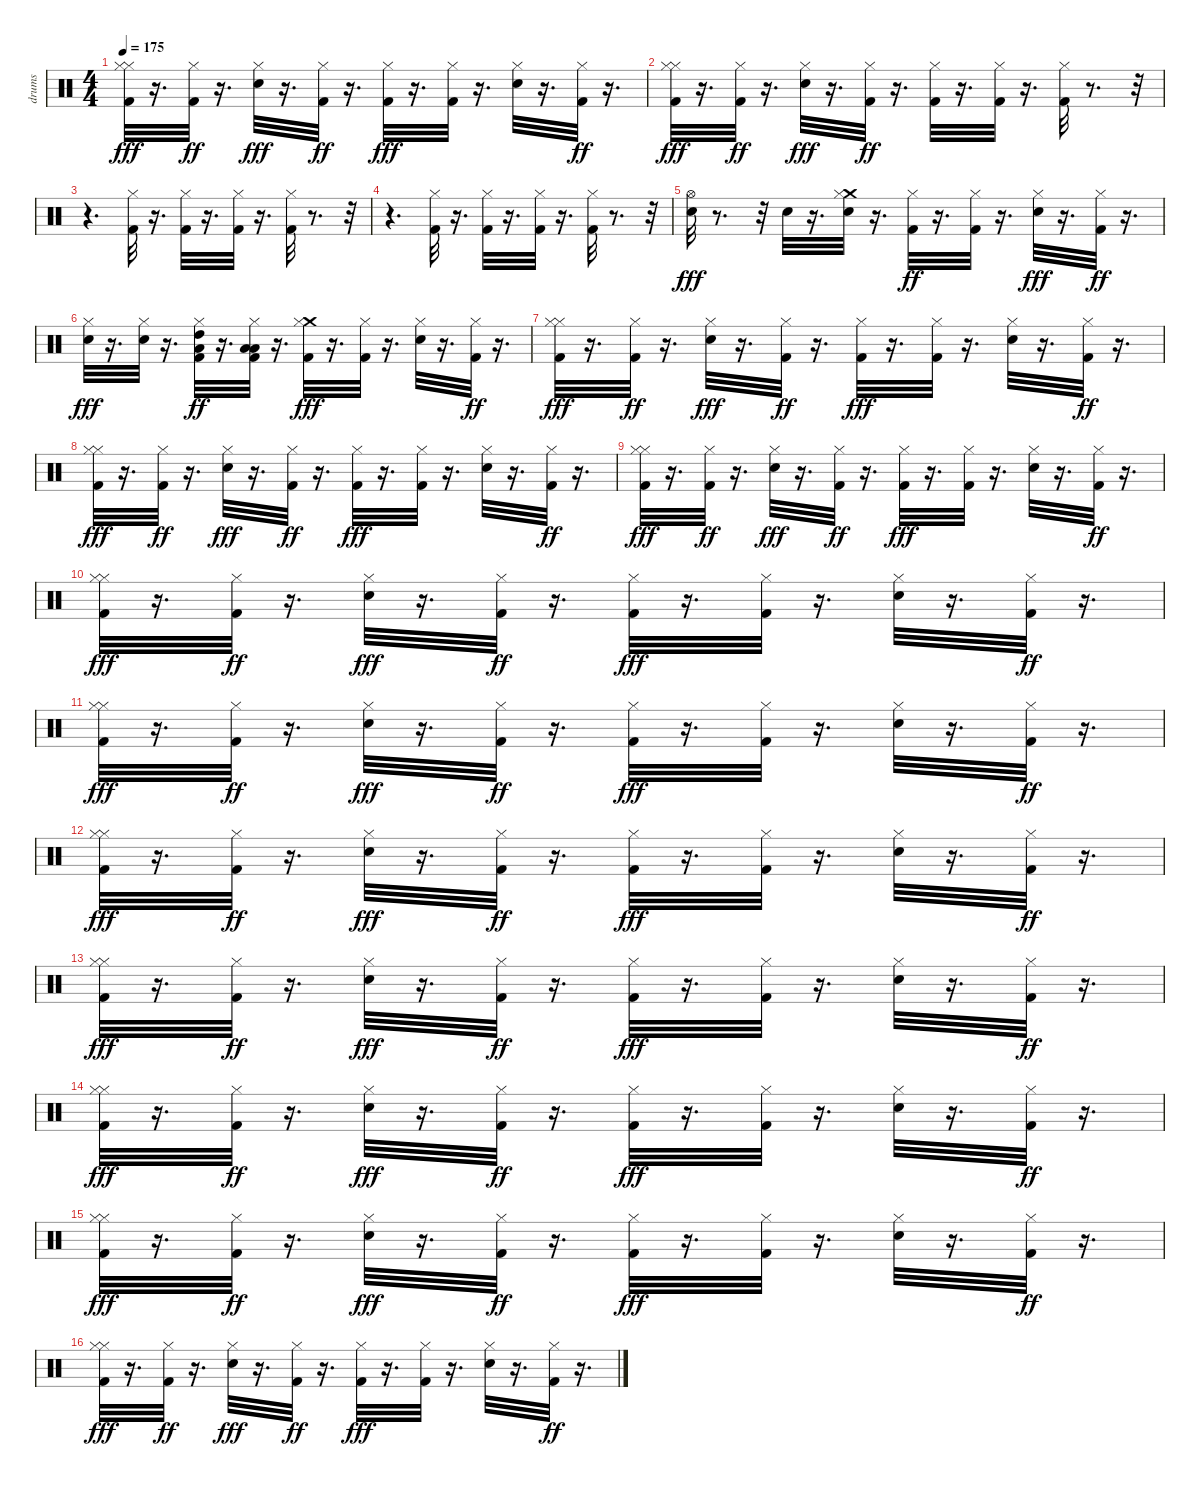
\track ("drums" "drums") {instrument percussion}
\staff {score}
\articulation defaults
\ts (4 4)
\tempo 175
\clef neutral
\ks c
("Hi-Hat (closed)" "Hi-Hat (closed)" "Kick (hit) 2").32{dy fff} r.16{d} ("Hi-Hat (closed)" "Kick (hit) 2").32{dy ff} r.16{d} ("Hi-Hat (closed)" "Electric Snare (hit)").32{dy fff} r.16{d} ("Hi-Hat (closed)" "Kick (hit) 2").32{dy ff} r.16{d} ("Hi-Hat (closed)" "Kick (hit) 2").32{dy fff} r.16{d} ("Hi-Hat (closed)" "Kick (hit) 2").32 r.16{d} ("Hi-Hat (closed)" "Electric Snare (hit)").32 r.16{d} ("Hi-Hat (closed)" "Kick (hit) 2").32{dy ff} r.16{d} |
("Hi-Hat (closed)" "Hi-Hat (closed)" "Kick (hit) 2").32{dy fff} r.16{d} ("Hi-Hat (closed)" "Kick (hit) 2").32{dy ff} r.16{d} ("Hi-Hat (closed)" "Electric Snare (hit)").32{dy fff} r.16{d} ("Hi-Hat (closed)" "Kick (hit) 2").32{dy ff} r.16{d} ("Hi-Hat (closed)" "Kick (hit) 2").32 r.16{d} ("Hi-Hat (closed)" "Kick (hit) 2").32 r.16{d} ("Hi-Hat (closed)" "Kick (hit) 2").32 r.8{d} r.32 |
r.4{d} ("Hi-Hat (closed)" "Kick (hit) 2").32 r.16{d} ("Hi-Hat (closed)" "Kick (hit) 2").32 r.16{d} ("Hi-Hat (closed)" "Kick (hit) 2").32 r.16{d} ("Hi-Hat (closed)" "Kick (hit) 2").32 r.8{d} r.32 |
r.4{d} ("Hi-Hat (closed)" "Kick (hit) 2").32 r.16{d} ("Hi-Hat (closed)" "Kick (hit) 2").32 r.16{d} ("Hi-Hat (closed)" "Kick (hit) 2").32 r.16{d} ("Hi-Hat (closed)" "Kick (hit) 2").32 r.8{d} r.32 |
("Hi-Hat (open)" "Electric Snare (hit)").32{dy fff} r.8{d} r.32 "Electric Snare (hit)".32 r.16{d} ("Crash medium (hit)" "Hi-Hat (closed)" "Electric Snare (hit)").32 r.16{d} ("Hi-Hat (closed)" "Kick (hit) 2").32{dy ff} r.16{d} ("Hi-Hat (closed)" "Kick (hit) 2").32 r.16{d} ("Hi-Hat (closed)" "Electric Snare (hit)").32{dy fff} r.16{d} ("Hi-Hat (closed)" "Kick (hit) 2").32{dy ff} r.16{d} |
("Hi-Hat (closed)" "Electric Snare (hit)").32{dy fff} r.16{d} ("Hi-Hat (closed)" "Electric Snare (hit)").32 r.16{d} ("Hi-Hat (closed)" "Low Tom (hit)" "High Tom (hit)" "Kick (hit) 2").32{dy ff} r.16{d} ("Hi-Hat (closed)" "Low Floor Tom (hit)" "Low Tom (hit)" "Kick (hit) 2").32 r.16{d} ("Crash medium (hit)" "Hi-Hat (closed)" "Kick (hit) 2").32{dy fff} r.16{d} ("Hi-Hat (closed)" "Kick (hit) 2").32 r.16{d} ("Hi-Hat (closed)" "Electric Snare (hit)").32 r.16{d} ("Hi-Hat (closed)" "Kick (hit) 2").32{dy ff} r.16{d} |
("Hi-Hat (closed)" "Hi-Hat (closed)" "Kick (hit) 2").32{dy fff} r.16{d} ("Hi-Hat (closed)" "Kick (hit) 2").32{dy ff} r.16{d} ("Hi-Hat (closed)" "Electric Snare (hit)").32{dy fff} r.16{d} ("Hi-Hat (closed)" "Kick (hit) 2").32{dy ff} r.16{d} ("Hi-Hat (closed)" "Kick (hit) 2").32{dy fff} r.16{d} ("Hi-Hat (closed)" "Kick (hit) 2").32 r.16{d} ("Hi-Hat (closed)" "Electric Snare (hit)").32 r.16{d} ("Hi-Hat (closed)" "Kick (hit) 2").32{dy ff} r.16{d} |
("Hi-Hat (closed)" "Hi-Hat (closed)" "Kick (hit) 2").32{dy fff} r.16{d} ("Hi-Hat (closed)" "Kick (hit) 2").32{dy ff} r.16{d} ("Hi-Hat (closed)" "Electric Snare (hit)").32{dy fff} r.16{d} ("Hi-Hat (closed)" "Kick (hit) 2").32{dy ff} r.16{d} ("Hi-Hat (closed)" "Kick (hit) 2").32{dy fff} r.16{d} ("Hi-Hat (closed)" "Kick (hit) 2").32 r.16{d} ("Hi-Hat (closed)" "Electric Snare (hit)").32 r.16{d} ("Hi-Hat (closed)" "Kick (hit) 2").32{dy ff} r.16{d} |
("Hi-Hat (closed)" "Hi-Hat (closed)" "Kick (hit) 2").32{dy fff} r.16{d} ("Hi-Hat (closed)" "Kick (hit) 2").32{dy ff} r.16{d} ("Hi-Hat (closed)" "Electric Snare (hit)").32{dy fff} r.16{d} ("Hi-Hat (closed)" "Kick (hit) 2").32{dy ff} r.16{d} ("Hi-Hat (closed)" "Kick (hit) 2").32{dy fff} r.16{d} ("Hi-Hat (closed)" "Kick (hit) 2").32 r.16{d} ("Hi-Hat (closed)" "Electric Snare (hit)").32 r.16{d} ("Hi-Hat (closed)" "Kick (hit) 2").32{dy ff} r.16{d} |
("Hi-Hat (closed)" "Hi-Hat (closed)" "Kick (hit) 2").32{dy fff} r.16{d} ("Hi-Hat (closed)" "Kick (hit) 2").32{dy ff} r.16{d} ("Hi-Hat (closed)" "Electric Snare (hit)").32{dy fff} r.16{d} ("Hi-Hat (closed)" "Kick (hit) 2").32{dy ff} r.16{d} ("Hi-Hat (closed)" "Kick (hit) 2").32{dy fff} r.16{d} ("Hi-Hat (closed)" "Kick (hit) 2").32 r.16{d} ("Hi-Hat (closed)" "Electric Snare (hit)").32 r.16{d} ("Hi-Hat (closed)" "Kick (hit) 2").32{dy ff} r.16{d} |
("Hi-Hat (closed)" "Hi-Hat (closed)" "Kick (hit) 2").32{dy fff} r.16{d} ("Hi-Hat (closed)" "Kick (hit) 2").32{dy ff} r.16{d} ("Hi-Hat (closed)" "Electric Snare (hit)").32{dy fff} r.16{d} ("Hi-Hat (closed)" "Kick (hit) 2").32{dy ff} r.16{d} ("Hi-Hat (closed)" "Kick (hit) 2").32{dy fff} r.16{d} ("Hi-Hat (closed)" "Kick (hit) 2").32 r.16{d} ("Hi-Hat (closed)" "Electric Snare (hit)").32 r.16{d} ("Hi-Hat (closed)" "Kick (hit) 2").32{dy ff} r.16{d} |
("Hi-Hat (closed)" "Hi-Hat (closed)" "Kick (hit) 2").32{dy fff} r.16{d} ("Hi-Hat (closed)" "Kick (hit) 2").32{dy ff} r.16{d} ("Hi-Hat (closed)" "Electric Snare (hit)").32{dy fff} r.16{d} ("Hi-Hat (closed)" "Kick (hit) 2").32{dy ff} r.16{d} ("Hi-Hat (closed)" "Kick (hit) 2").32{dy fff} r.16{d} ("Hi-Hat (closed)" "Kick (hit) 2").32 r.16{d} ("Hi-Hat (closed)" "Electric Snare (hit)").32 r.16{d} ("Hi-Hat (closed)" "Kick (hit) 2").32{dy ff} r.16{d} |
("Hi-Hat (closed)" "Hi-Hat (closed)" "Kick (hit) 2").32{dy fff} r.16{d} ("Hi-Hat (closed)" "Kick (hit) 2").32{dy ff} r.16{d} ("Hi-Hat (closed)" "Electric Snare (hit)").32{dy fff} r.16{d} ("Hi-Hat (closed)" "Kick (hit) 2").32{dy ff} r.16{d} ("Hi-Hat (closed)" "Kick (hit) 2").32{dy fff} r.16{d} ("Hi-Hat (closed)" "Kick (hit) 2").32 r.16{d} ("Hi-Hat (closed)" "Electric Snare (hit)").32 r.16{d} ("Hi-Hat (closed)" "Kick (hit) 2").32{dy ff} r.16{d} |
("Hi-Hat (closed)" "Hi-Hat (closed)" "Kick (hit) 2").32{dy fff} r.16{d} ("Hi-Hat (closed)" "Kick (hit) 2").32{dy ff} r.16{d} ("Hi-Hat (closed)" "Electric Snare (hit)").32{dy fff} r.16{d} ("Hi-Hat (closed)" "Kick (hit) 2").32{dy ff} r.16{d} ("Hi-Hat (closed)" "Kick (hit) 2").32{dy fff} r.16{d} ("Hi-Hat (closed)" "Kick (hit) 2").32 r.16{d} ("Hi-Hat (closed)" "Electric Snare (hit)").32 r.16{d} ("Hi-Hat (closed)" "Kick (hit) 2").32{dy ff} r.16{d} |
("Hi-Hat (closed)" "Hi-Hat (closed)" "Kick (hit) 2").32{dy fff} r.16{d} ("Hi-Hat (closed)" "Kick (hit) 2").32{dy ff} r.16{d} ("Hi-Hat (closed)" "Electric Snare (hit)").32{dy fff} r.16{d} ("Hi-Hat (closed)" "Kick (hit) 2").32{dy ff} r.16{d} ("Hi-Hat (closed)" "Kick (hit) 2").32{dy fff} r.16{d} ("Hi-Hat (closed)" "Kick (hit) 2").32 r.16{d} ("Hi-Hat (closed)" "Electric Snare (hit)").32 r.16{d} ("Hi-Hat (closed)" "Kick (hit) 2").32{dy ff} r.16{d} |
("Hi-Hat (closed)" "Hi-Hat (closed)" "Kick (hit) 2").32{dy fff} r.16{d} ("Hi-Hat (closed)" "Kick (hit) 2").32{dy ff} r.16{d} ("Hi-Hat (closed)" "Electric Snare (hit)").32{dy fff} r.16{d} ("Hi-Hat (closed)" "Kick (hit) 2").32{dy ff} r.16{d} ("Hi-Hat (closed)" "Kick (hit) 2").32{dy fff} r.16{d} ("Hi-Hat (closed)" "Kick (hit) 2").32 r.16{d} ("Hi-Hat (closed)" "Electric Snare (hit)").32 r.16{d} ("Hi-Hat (closed)" "Kick (hit) 2").32{dy ff} r.16{d}
